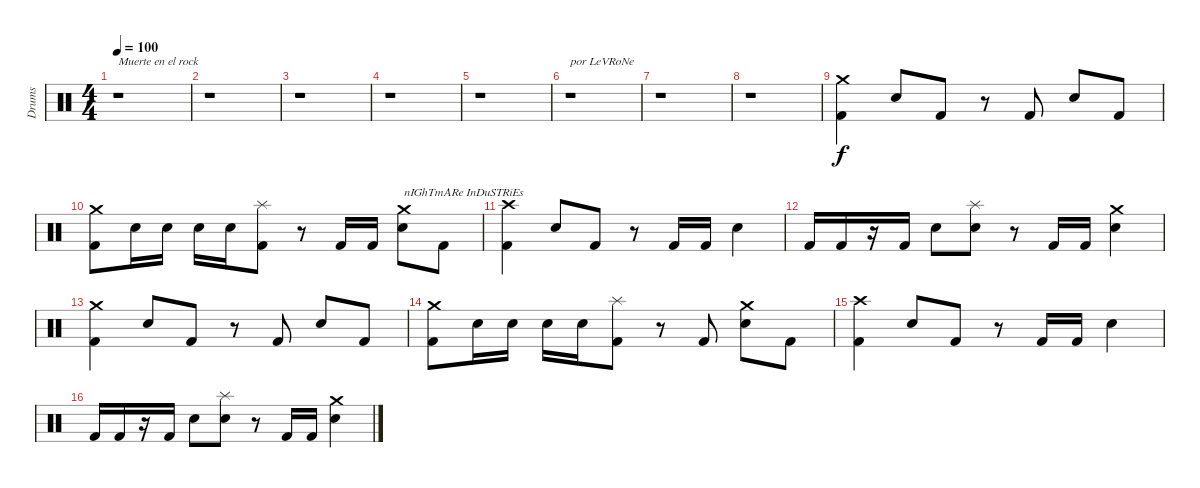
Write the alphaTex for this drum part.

\track ("Drums" "Drums") {instrument percussion}
\staff {score}
\articulation defaults
\ts (4 4)
\tempo 100
\clef neutral
\ks c
r.1{txt "Muerte en el rock" dy f} |
r.1 |
r.1 |
r.1 |
r.1 |
r.1{txt "por LeVRoNe"} |
r.1 |
r.1 |
("Crash medium (hit)" "Kick (hit) 2").4 "Electric Snare (hit)".8 "Kick (hit) 2".8 r.8 "Kick (hit) 2".8 "Electric Snare (hit)".8 "Kick (hit) 2".8 |
("Crash medium (hit)" "Kick (hit) 2").8 "Electric Snare (hit)".16 "Electric Snare (hit)".16 "Electric Snare (hit)".16 "Electric Snare (hit)".16 ("Splash (hit)" "Kick (hit) 2").8 r.8 "Kick (hit) 2".16 "Kick (hit) 2".16 ("Crash medium (hit)" "Electric Snare (hit)").8{txt "nIGhTmARe InDuSTRiEs"} "Kick (hit) 2".8 |
("Crash high (hit)" "Kick (hit) 2").4 "Electric Snare (hit)".8 "Kick (hit) 2".8 r.8 "Kick (hit) 2".16 "Kick (hit) 2".16 "Electric Snare (hit)".4 |
"Kick (hit) 2".16 "Kick (hit) 2".16 r.16 "Kick (hit) 2".16 "Electric Snare (hit)".8 ("Splash (hit)" "Electric Snare (hit)").8 r.8 "Kick (hit) 2".16 "Kick (hit) 2".16 ("Crash medium (hit)" "Electric Snare (hit)").4 |
("Crash medium (hit)" "Kick (hit) 2").4 "Electric Snare (hit)".8 "Kick (hit) 2".8 r.8 "Kick (hit) 2".8 "Electric Snare (hit)".8 "Kick (hit) 2".8 |
("Crash medium (hit)" "Kick (hit) 2").8 "Electric Snare (hit)".16 "Electric Snare (hit)".16 "Electric Snare (hit)".16 "Electric Snare (hit)".16 ("Splash (hit)" "Kick (hit) 2").8 r.8 "Kick (hit) 2".8 ("Crash medium (hit)" "Electric Snare (hit)").8 "Kick (hit) 2".8 |
("Crash high (hit)" "Kick (hit) 2").4 "Electric Snare (hit)".8 "Kick (hit) 2".8 r.8 "Kick (hit) 2".16 "Kick (hit) 2".16 "Electric Snare (hit)".4 |
"Kick (hit) 2".16 "Kick (hit) 2".16 r.16 "Kick (hit) 2".16 "Electric Snare (hit)".8 ("Splash (hit)" "Electric Snare (hit)").8 r.8 "Kick (hit) 2".16 "Kick (hit) 2".16 ("Crash medium (hit)" "Electric Snare (hit)").4
